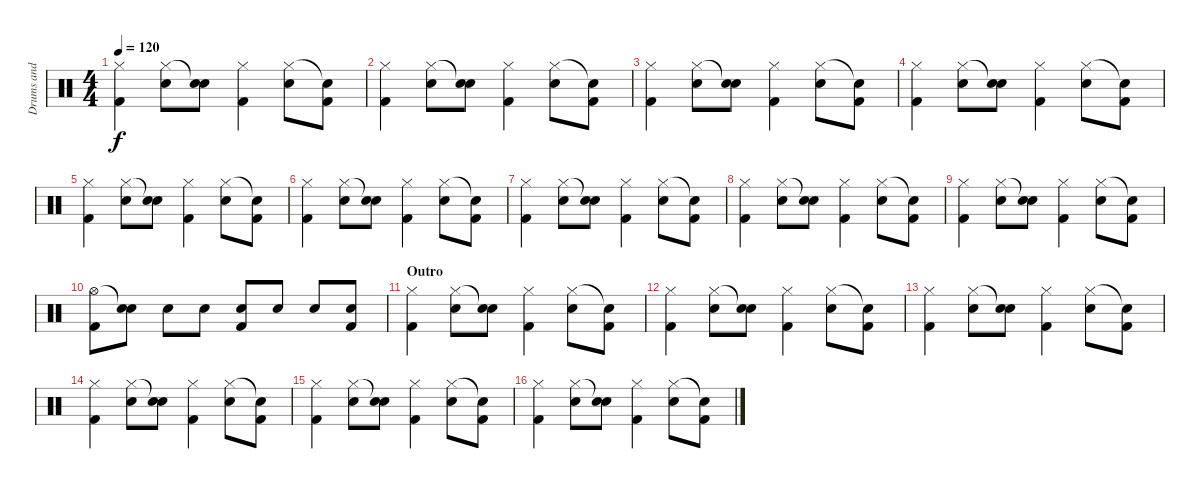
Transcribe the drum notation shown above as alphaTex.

\track ("Drums and Percussion" "Drums and ") {instrument percussion}
\staff {score}
\articulation defaults
\ts (4 4)
\tempo 120
\clef neutral
\ks c
("Hi-Hat (closed)" "Kick (hit) 2").4{dy f} ("Hi-Hat (closed)" "Snare (hit) 2").8 ("Snare (hit)"{t} "Snare (hit) 2").8 ("Hi-Hat (closed)" "Kick (hit) 2").4 ("Hi-Hat (closed)" "Snare (hit) 2").8 ("Snare (hit)"{t} "Kick (hit) 2").8 |
("Hi-Hat (closed)" "Kick (hit) 2").4 ("Hi-Hat (closed)" "Snare (hit) 2").8 ("Snare (hit)"{t} "Snare (hit) 2").8 ("Hi-Hat (closed)" "Kick (hit) 2").4 ("Hi-Hat (closed)" "Snare (hit) 2").8 ("Snare (hit)"{t} "Kick (hit) 2").8 |
("Hi-Hat (closed)" "Kick (hit) 2").4 ("Hi-Hat (closed)" "Snare (hit) 2").8 ("Snare (hit)"{t} "Snare (hit) 2").8 ("Hi-Hat (closed)" "Kick (hit) 2").4 ("Hi-Hat (closed)" "Snare (hit) 2").8 ("Snare (hit)"{t} "Kick (hit) 2").8 |
("Hi-Hat (closed)" "Kick (hit) 2").4 ("Hi-Hat (closed)" "Snare (hit) 2").8 ("Snare (hit)"{t} "Snare (hit) 2").8 ("Hi-Hat (closed)" "Kick (hit) 2").4 ("Hi-Hat (closed)" "Snare (hit) 2").8 ("Snare (hit)"{t} "Kick (hit) 2").8 |
("Hi-Hat (closed)" "Kick (hit) 2").4 ("Hi-Hat (closed)" "Snare (hit) 2").8 ("Snare (hit)"{t} "Snare (hit) 2").8 ("Hi-Hat (closed)" "Kick (hit) 2").4 ("Hi-Hat (closed)" "Snare (hit) 2").8 ("Snare (hit)"{t} "Kick (hit) 2").8 |
("Hi-Hat (closed)" "Kick (hit) 2").4 ("Hi-Hat (closed)" "Snare (hit) 2").8 ("Snare (hit)"{t} "Snare (hit) 2").8 ("Hi-Hat (closed)" "Kick (hit) 2").4 ("Hi-Hat (closed)" "Snare (hit) 2").8 ("Snare (hit)"{t} "Kick (hit) 2").8 |
("Hi-Hat (closed)" "Kick (hit) 2").4 ("Hi-Hat (closed)" "Snare (hit) 2").8 ("Snare (hit)"{t} "Snare (hit) 2").8 ("Hi-Hat (closed)" "Kick (hit) 2").4 ("Hi-Hat (closed)" "Snare (hit) 2").8 ("Snare (hit)"{t} "Kick (hit) 2").8 |
("Hi-Hat (closed)" "Kick (hit) 2").4 ("Hi-Hat (closed)" "Snare (hit) 2").8 ("Snare (hit)"{t} "Snare (hit) 2").8 ("Hi-Hat (closed)" "Kick (hit) 2").4 ("Hi-Hat (closed)" "Snare (hit) 2").8 ("Snare (hit)"{t} "Kick (hit) 2").8 |
("Hi-Hat (closed)" "Kick (hit) 2").4 ("Hi-Hat (closed)" "Snare (hit) 2").8 ("Snare (hit)"{t} "Snare (hit) 2").8 ("Hi-Hat (closed)" "Kick (hit) 2").4 ("Hi-Hat (closed)" "Snare (hit) 2").8 ("Snare (hit)"{t} "Kick (hit) 2").8 |
("Hi-Hat (open)" "Kick (hit) 2").8 ("Snare (hit)"{t} "Snare (hit) 2").8 "Snare (hit) 2".8 "Snare (hit) 2".8 ("Snare (hit) 2" "Kick (hit) 2").8 "Snare (hit) 2".8 "Snare (hit) 2".8 ("Snare (hit) 2" "Kick (hit) 2").8 |
\section ("" "Outro")
("Hi-Hat (closed)" "Kick (hit) 2").4 ("Hi-Hat (closed)" "Snare (hit) 2").8 ("Snare (hit)"{t} "Snare (hit) 2").8 ("Hi-Hat (closed)" "Kick (hit) 2").4 ("Hi-Hat (closed)" "Snare (hit) 2").8 ("Snare (hit)"{t} "Kick (hit) 2").8 |
("Hi-Hat (closed)" "Kick (hit) 2").4 ("Hi-Hat (closed)" "Snare (hit) 2").8 ("Snare (hit)"{t} "Snare (hit) 2").8 ("Hi-Hat (closed)" "Kick (hit) 2").4 ("Hi-Hat (closed)" "Snare (hit) 2").8 ("Snare (hit)"{t} "Kick (hit) 2").8 |
("Hi-Hat (closed)" "Kick (hit) 2").4 ("Hi-Hat (closed)" "Snare (hit) 2").8 ("Snare (hit)"{t} "Snare (hit) 2").8 ("Hi-Hat (closed)" "Kick (hit) 2").4 ("Hi-Hat (closed)" "Snare (hit) 2").8 ("Snare (hit)"{t} "Kick (hit) 2").8 |
("Hi-Hat (closed)" "Kick (hit) 2").4 ("Hi-Hat (closed)" "Snare (hit) 2").8 ("Snare (hit)"{t} "Snare (hit) 2").8 ("Hi-Hat (closed)" "Kick (hit) 2").4 ("Hi-Hat (closed)" "Snare (hit) 2").8 ("Snare (hit)"{t} "Kick (hit) 2").8 |
("Hi-Hat (closed)" "Kick (hit) 2").4 ("Hi-Hat (closed)" "Snare (hit) 2").8 ("Snare (hit)"{t} "Snare (hit) 2").8 ("Hi-Hat (closed)" "Kick (hit) 2").4 ("Hi-Hat (closed)" "Snare (hit) 2").8 ("Snare (hit)"{t} "Kick (hit) 2").8 |
("Hi-Hat (closed)" "Kick (hit) 2").4 ("Hi-Hat (closed)" "Snare (hit) 2").8 ("Snare (hit)"{t} "Snare (hit) 2").8 ("Hi-Hat (closed)" "Kick (hit) 2").4 ("Hi-Hat (closed)" "Snare (hit) 2").8 ("Snare (hit)"{t} "Kick (hit) 2").8
